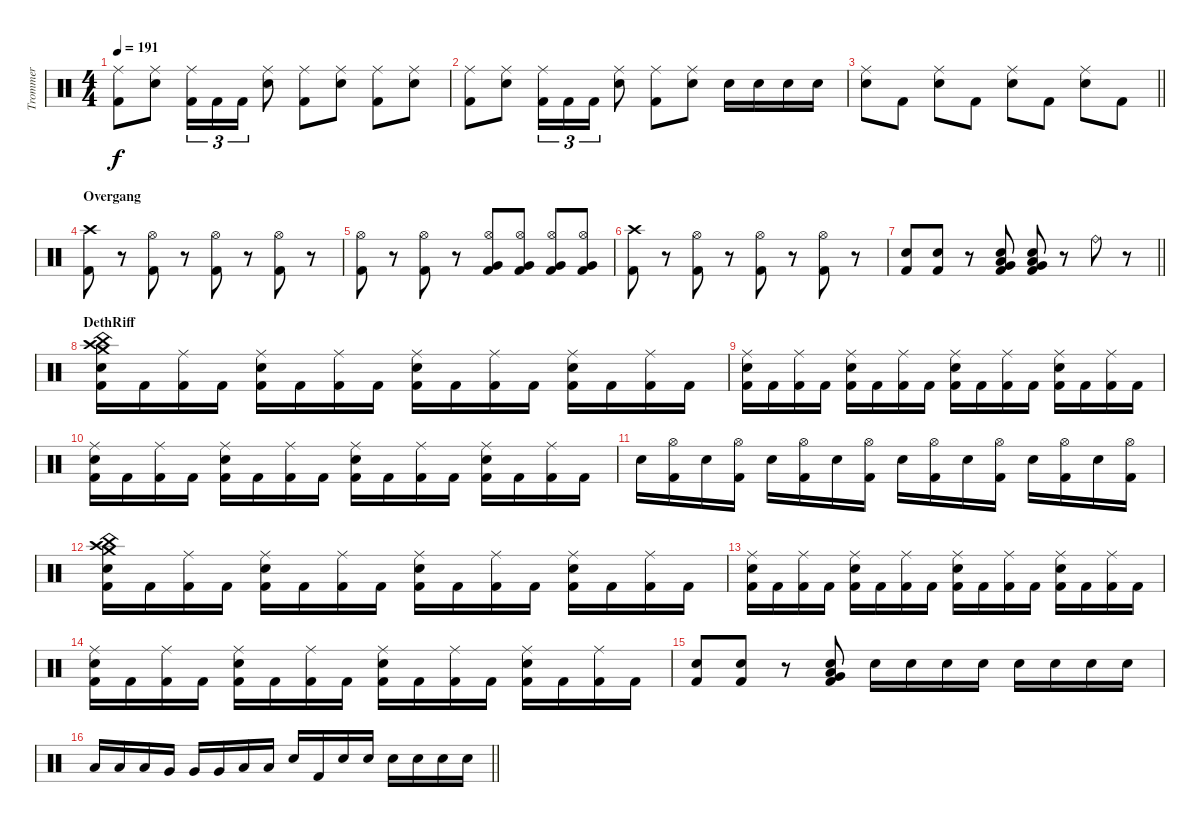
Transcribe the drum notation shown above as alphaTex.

\track ("Trommer" "Trommer") {instrument percussion}
\staff {score}
\articulation defaults
\ts (4 4)
\tempo 191
\clef neutral
\ks c
("Ride (middle)" "Kick (hit) 2").8{dy f} ("Ride (middle)" "Snare (hit) 2").8 ("Ride (middle)" "Kick (hit) 2").16{tu (3 2)} "Kick (hit) 2".16{tu (3 2)} "Kick (hit) 2".16{tu (3 2)} ("Ride (middle)" "Snare (hit) 2").8 ("Ride (middle)" "Kick (hit) 2").8 ("Ride (middle)" "Snare (hit) 2").8 ("Ride (middle)" "Kick (hit) 2").8 ("Ride (middle)" "Snare (hit) 2").8 |
("Ride (middle)" "Kick (hit) 2").8 ("Ride (middle)" "Snare (hit) 2").8 ("Ride (middle)" "Kick (hit) 2").16{tu (3 2)} "Kick (hit) 2".16{tu (3 2)} "Kick (hit) 2".16{tu (3 2)} ("Ride (middle)" "Snare (hit) 2").8 ("Ride (middle)" "Kick (hit) 2").8 ("Ride (middle)" "Snare (hit) 2").8 "Snare (hit) 2".16 "Snare (hit) 2".16 "Snare (hit) 2".16 "Snare (hit) 2".16 |
\barLineRight lightlight
("Ride (middle)" "Snare (hit) 2").8 "Kick (hit) 2".8 ("Ride (middle)" "Snare (hit) 2").8 "Kick (hit) 2".8 ("Ride (middle)" "Snare (hit) 2").8 "Kick (hit) 2".8 ("Ride (middle)" "Snare (hit) 2").8 "Kick (hit) 2".8 |
\section ("" "Overgang")
("Crash high (hit)" "Kick (hit) 2").8 r.8 ("Hi-Hat (open)" "Kick (hit) 2").8 r.8 ("Hi-Hat (open)" "Kick (hit) 2").8 r.8 ("Hi-Hat (open)" "Kick (hit) 2").8 r.8 |
("Hi-Hat (open)" "Kick (hit) 2").8 r.8 ("Hi-Hat (open)" "Kick (hit) 2").8 r.8 ("Hi-Hat (open)" "Very Low Tom (hit)" "Kick (hit) 2").8 ("Hi-Hat (open)" "Very Low Tom (hit)" "Kick (hit) 2").8 ("Hi-Hat (open)" "Very Low Tom (hit)" "Kick (hit) 2").8 ("Hi-Hat (open)" "Very Low Tom (hit)" "Kick (hit) 2").8 |
("Crash high (hit)" "Kick (hit) 2").8 r.8 ("Hi-Hat (open)" "Kick (hit) 2").8 r.8 ("Hi-Hat (open)" "Kick (hit) 2").8 r.8 ("Hi-Hat (open)" "Kick (hit) 2").8 r.8 |
\barLineRight lightlight
("Snare (hit) 2" "Kick (hit) 2").8 ("Snare (hit) 2" "Kick (hit) 2").8 r.8 ("Low Tom (hit)" "Very Low Tom (hit)" "Snare (hit) 2" "Kick (hit) 2").8 ("Low Tom (hit)" "Very Low Tom (hit)" "Snare (hit) 2" "Kick (hit) 2").8 r.8 "Ride (bell)".8 r.8 |
\section ("" "DethRiff")
("Crash high (hit)" "Crash medium (hit)" "China (hit)" "Snare (hit) 2" "Kick (hit) 2").16 "Kick (hit) 2".16 ("Ride (middle)" "Kick (hit) 2").16 "Kick (hit) 2".16 ("Ride (middle)" "Snare (hit) 2" "Kick (hit) 2").16 "Kick (hit) 2".16 ("Ride (middle)" "Kick (hit) 2").16 "Kick (hit) 2".16 ("Ride (middle)" "Snare (hit) 2" "Kick (hit) 2").16 "Kick (hit) 2".16 ("Ride (middle)" "Kick (hit) 2").16 "Kick (hit) 2".16 ("Ride (middle)" "Snare (hit) 2" "Kick (hit) 2").16 "Kick (hit) 2".16 ("Ride (middle)" "Kick (hit) 2").16 "Kick (hit) 2".16 |
("Ride (middle)" "Snare (hit) 2" "Kick (hit) 2").16 "Kick (hit) 2".16 ("Ride (middle)" "Kick (hit) 2").16 "Kick (hit) 2".16 ("Ride (middle)" "Snare (hit) 2" "Kick (hit) 2").16 "Kick (hit) 2".16 ("Ride (middle)" "Kick (hit) 2").16 "Kick (hit) 2".16 ("Ride (middle)" "Snare (hit) 2" "Kick (hit) 2").16 "Kick (hit) 2".16 ("Ride (middle)" "Kick (hit) 2").16 "Kick (hit) 2".16 ("Ride (middle)" "Snare (hit) 2" "Kick (hit) 2").16 "Kick (hit) 2".16 ("Ride (middle)" "Kick (hit) 2").16 "Kick (hit) 2".16 |
("Ride (middle)" "Snare (hit) 2" "Kick (hit) 2").16 "Kick (hit) 2".16 ("Ride (middle)" "Kick (hit) 2").16 "Kick (hit) 2".16 ("Ride (middle)" "Snare (hit) 2" "Kick (hit) 2").16 "Kick (hit) 2".16 ("Ride (middle)" "Kick (hit) 2").16 "Kick (hit) 2".16 ("Ride (middle)" "Snare (hit) 2" "Kick (hit) 2").16 "Kick (hit) 2".16 ("Ride (middle)" "Kick (hit) 2").16 "Kick (hit) 2".16 ("Ride (middle)" "Snare (hit) 2" "Kick (hit) 2").16 "Kick (hit) 2".16 ("Ride (middle)" "Kick (hit) 2").16 "Kick (hit) 2".16 |
"Snare (hit) 2".16 ("Hi-Hat (open)" "Kick (hit) 2").16 "Snare (hit) 2".16 ("Hi-Hat (open)" "Kick (hit) 2").16 "Snare (hit) 2".16 ("Hi-Hat (open)" "Kick (hit) 2").16 "Snare (hit) 2".16 ("Hi-Hat (open)" "Kick (hit) 2").16 "Snare (hit) 2".16 ("Hi-Hat (open)" "Kick (hit) 2").16 "Snare (hit) 2".16 ("Hi-Hat (open)" "Kick (hit) 2").16 "Snare (hit) 2".16 ("Hi-Hat (open)" "Kick (hit) 2").16 "Snare (hit) 2".16 ("Hi-Hat (open)" "Kick (hit) 2").16 |
("Crash high (hit)" "Crash medium (hit)" "China (hit)" "Snare (hit) 2" "Kick (hit) 2").16 "Kick (hit) 2".16 ("Ride (middle)" "Kick (hit) 2").16 "Kick (hit) 2".16 ("Ride (middle)" "Snare (hit) 2" "Kick (hit) 2").16 "Kick (hit) 2".16 ("Ride (middle)" "Kick (hit) 2").16 "Kick (hit) 2".16 ("Ride (middle)" "Snare (hit) 2" "Kick (hit) 2").16 "Kick (hit) 2".16 ("Ride (middle)" "Kick (hit) 2").16 "Kick (hit) 2".16 ("Ride (middle)" "Snare (hit) 2" "Kick (hit) 2").16 "Kick (hit) 2".16 ("Ride (middle)" "Kick (hit) 2").16 "Kick (hit) 2".16 |
("Ride (middle)" "Snare (hit) 2" "Kick (hit) 2").16 "Kick (hit) 2".16 ("Ride (middle)" "Kick (hit) 2").16 "Kick (hit) 2".16 ("Ride (middle)" "Snare (hit) 2" "Kick (hit) 2").16 "Kick (hit) 2".16 ("Ride (middle)" "Kick (hit) 2").16 "Kick (hit) 2".16 ("Ride (middle)" "Snare (hit) 2" "Kick (hit) 2").16 "Kick (hit) 2".16 ("Ride (middle)" "Kick (hit) 2").16 "Kick (hit) 2".16 ("Ride (middle)" "Snare (hit) 2" "Kick (hit) 2").16 "Kick (hit) 2".16 ("Ride (middle)" "Kick (hit) 2").16 "Kick (hit) 2".16 |
("Ride (middle)" "Snare (hit) 2" "Kick (hit) 2").16 "Kick (hit) 2".16 ("Ride (middle)" "Kick (hit) 2").16 "Kick (hit) 2".16 ("Ride (middle)" "Snare (hit) 2" "Kick (hit) 2").16 "Kick (hit) 2".16 ("Ride (middle)" "Kick (hit) 2").16 "Kick (hit) 2".16 ("Ride (middle)" "Snare (hit) 2" "Kick (hit) 2").16 "Kick (hit) 2".16 ("Ride (middle)" "Kick (hit) 2").16 "Kick (hit) 2".16 ("Ride (middle)" "Snare (hit) 2" "Kick (hit) 2").16 "Kick (hit) 2".16 ("Ride (middle)" "Kick (hit) 2").16 "Kick (hit) 2".16 |
("Snare (hit) 2" "Kick (hit) 2").8 ("Snare (hit) 2" "Kick (hit) 2").8 r.8 ("Low Tom (hit)" "Very Low Tom (hit)" "Snare (hit) 2" "Kick (hit) 2").8 "Snare (hit) 2".16 "Snare (hit) 2".16 "Snare (hit) 2".16 "Snare (hit) 2".16 "Snare (hit) 2".16 "Snare (hit) 2".16 "Snare (hit) 2".16 "Snare (hit) 2".16 |
\barLineRight lightlight "Low Tom (hit)".16 "Low Tom (hit)".16 "Low Tom (hit)".16 "Very Low Tom (hit)".16 "Very Low Tom (hit)".16 "Very Low Tom (hit)".16 "Low Tom (hit)".16 "Low Tom (hit)".16 "Snare (hit) 2".16 "Kick (hit) 2".16 "Snare (hit) 2".16 "Snare (hit) 2".16 "Snare (hit) 2".16 "Snare (hit) 2".16 "Snare (hit) 2".16 "Snare (hit) 2".16
